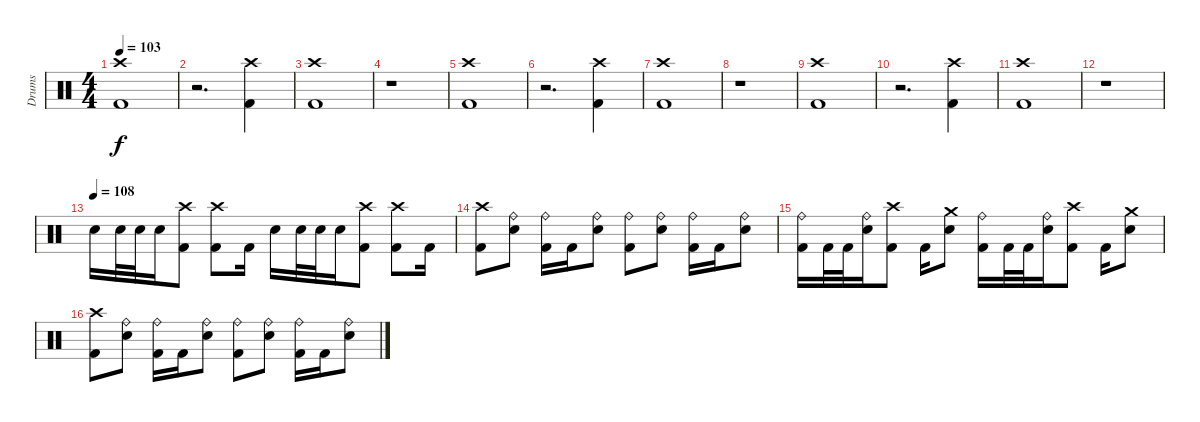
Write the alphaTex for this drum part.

\track ("Drums" "Drums") {instrument percussion}
\staff {score}
\articulation defaults
\ts (4 4)
\tempo 103
\clef neutral
\ks c
("Crash high (hit)" "Kick (hit) 2").1{dy f} |
r.2{d} ("Crash high (hit)" "Kick (hit) 2").4 |
("Crash high (hit)" "Kick (hit) 2").1 |
r.1 |
("Crash high (hit)" "Kick (hit) 2").1 |
r.2{d} ("Crash high (hit)" "Kick (hit) 2").4 |
("Crash high (hit)" "Kick (hit) 2").1 |
r.1 |
("Crash high (hit)" "Kick (hit) 2").1 |
r.2{d} ("Crash high (hit)" "Kick (hit) 2").4 |
("Crash high (hit)" "Kick (hit) 2").1 |
r.1 |
\tempo (108)
"Snare (hit) 2".16 "Snare (hit) 2".32 "Snare (hit) 2".32 "Snare (hit) 2".16 ("Crash high (hit)" "Kick (hit) 2").8 ("Crash high (hit)" "Kick (hit) 2").8 "Kick (hit) 2".16 "Snare (hit) 2".16 "Snare (hit) 2".32 "Snare (hit) 2".32 "Snare (hit) 2".16 ("Crash high (hit)" "Kick (hit) 2").8 ("Crash high (hit)" "Kick (hit) 2").8 "Kick (hit) 2".16 |
("Crash high (hit)" "Kick (hit) 2").8 ("Ride (bell)" "Snare (hit) 2").8 ("Ride (bell)" "Kick (hit) 2").16 "Kick (hit) 2".16 ("Ride (bell)" "Snare (hit) 2").8 ("Ride (bell)" "Kick (hit) 2").8 ("Ride (bell)" "Snare (hit) 2").8 ("Ride (bell)" "Kick (hit) 2").16 "Kick (hit) 2".16 ("Ride (bell)" "Snare (hit) 2").8 |
("Ride (bell)" "Kick (hit) 2").16 "Kick (hit) 2".32 "Kick (hit) 2".32 ("Ride (bell)" "Snare (hit) 2").16 ("Crash high (hit)" "Kick (hit) 2").8 "Kick (hit) 2".16 ("Crash medium (hit)" "Snare (hit) 2").8 ("Ride (bell)" "Kick (hit) 2").16 "Kick (hit) 2".32 "Kick (hit) 2".32 ("Ride (bell)" "Snare (hit) 2").16 ("Crash high (hit)" "Kick (hit) 2").8 "Kick (hit) 2".16 ("Crash medium (hit)" "Snare (hit) 2").8 |
("Crash high (hit)" "Kick (hit) 2").8 ("Ride (bell)" "Snare (hit) 2").8 ("Ride (bell)" "Kick (hit) 2").16 "Kick (hit) 2".16 ("Ride (bell)" "Snare (hit) 2").8 ("Ride (bell)" "Kick (hit) 2").8 ("Ride (bell)" "Snare (hit) 2").8 ("Ride (bell)" "Kick (hit) 2").16 "Kick (hit) 2".16 ("Ride (bell)" "Snare (hit) 2").8
